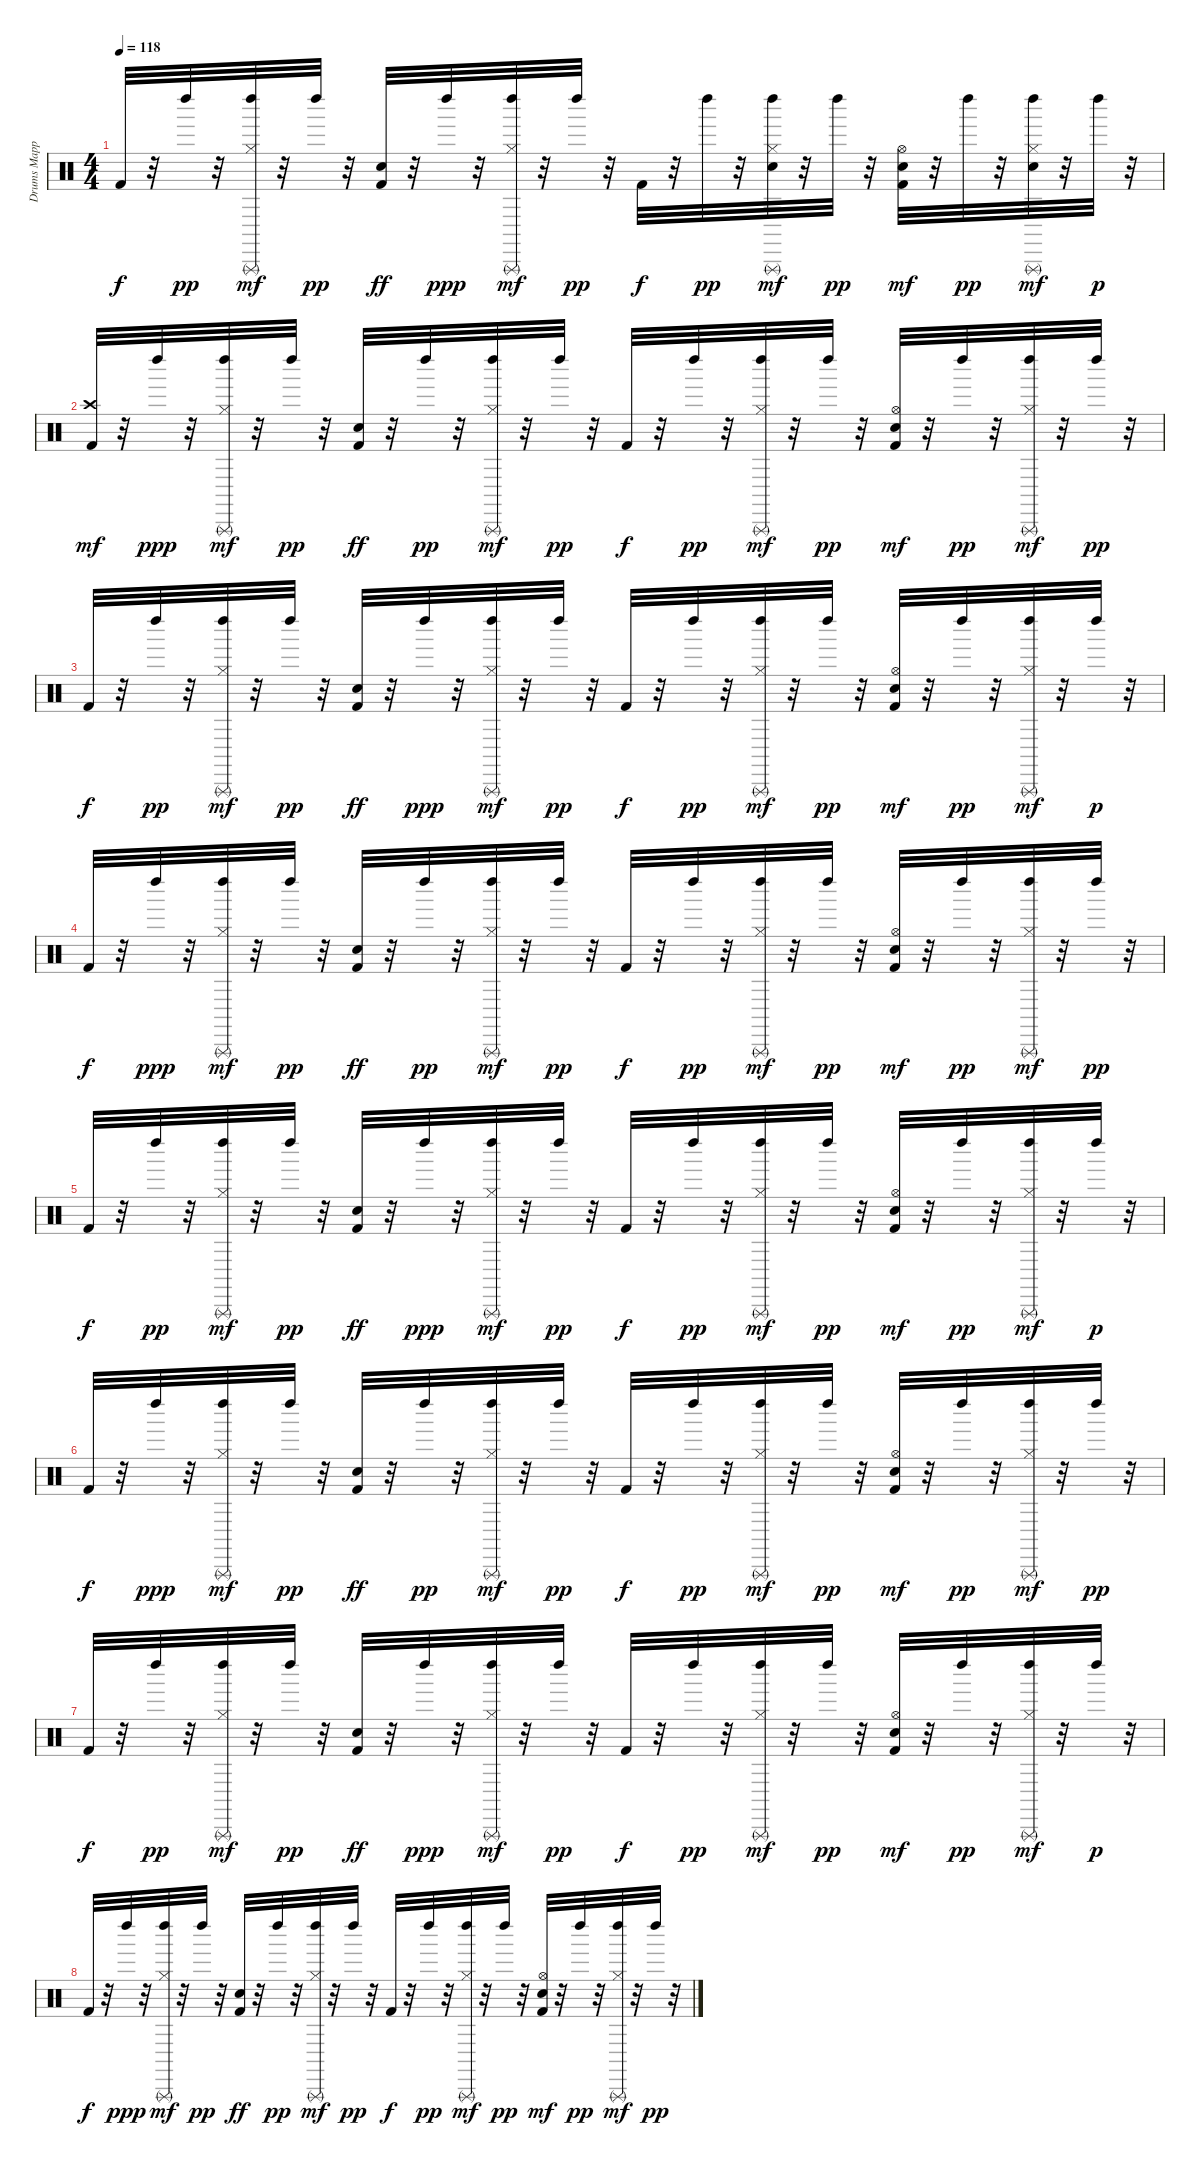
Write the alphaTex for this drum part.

\track ("Drums Mapped*merged" "Drums Mapp") {instrument percussion}
\staff {score}
\articulation defaults
\ts (4 4)
\tempo 118
\clef neutral
\ks c "Kick (hit) 2".32{dy f}
r.32 "Left Maraca (hit)".32{dy pp} r.32 ("Hi-Hat (closed)" "Left Maraca (hit)" "Triangle (rnute)").32{dy mf} r.32 "Left Maraca (hit)".32{dy pp} r.32 ("Kick (hit) 2" "Snare (hit) 2").32{dy ff} r.32 "Left Maraca (hit)".32{dy ppp} r.32 ("Hi-Hat (closed)" "Left Maraca (hit)" "Triangle (rnute)").32{dy mf} r.32 "Left Maraca (hit)".32{dy pp} r.32 "Kick (hit) 2".32{dy f} r.32 "Left Maraca (hit)".32{dy pp} r.32 ("Snare (hit) 2" "Hi-Hat (closed)" "Left Maraca (hit)" "Triangle (rnute)").32{dy mf} r.32 "Left Maraca (hit)".32{dy pp} r.32 ("Kick (hit) 2" "Snare (hit) 2" "Hi-Hat (open)").32{dy mf} r.32 "Left Maraca (hit)".32{dy pp} r.32 ("Snare (hit) 2" "Hi-Hat (closed)" "Left Maraca (hit)" "Triangle (rnute)").32{dy mf} r.32 "Left Maraca (hit)".32{dy p} r.32 |
("Kick (hit) 2" "Crash high (hit)").32{dy mf} r.32 "Left Maraca (hit)".32{dy ppp} r.32 ("Hi-Hat (closed)" "Left Maraca (hit)" "Triangle (rnute)").32{dy mf} r.32 "Left Maraca (hit)".32{dy pp} r.32 ("Kick (hit) 2" "Snare (hit) 2").32{dy ff} r.32 "Left Maraca (hit)".32{dy pp} r.32 ("Hi-Hat (closed)" "Left Maraca (hit)" "Triangle (rnute)").32{dy mf} r.32 "Left Maraca (hit)".32{dy pp} r.32 "Kick (hit) 2".32{dy f} r.32 "Left Maraca (hit)".32{dy pp} r.32 ("Hi-Hat (closed)" "Left Maraca (hit)" "Triangle (rnute)").32{dy mf} r.32 "Left Maraca (hit)".32{dy pp} r.32 ("Kick (hit) 2" "Snare (hit) 2" "Hi-Hat (open)").32{dy mf} r.32 "Left Maraca (hit)".32{dy pp} r.32 ("Hi-Hat (closed)" "Left Maraca (hit)" "Triangle (rnute)").32{dy mf} r.32 "Left Maraca (hit)".32{dy pp} r.32 |
"Kick (hit) 2".32{dy f} r.32 "Left Maraca (hit)".32{dy pp} r.32 ("Hi-Hat (closed)" "Left Maraca (hit)" "Triangle (rnute)").32{dy mf} r.32 "Left Maraca (hit)".32{dy pp} r.32 ("Kick (hit) 2" "Snare (hit) 2").32{dy ff} r.32 "Left Maraca (hit)".32{dy ppp} r.32 ("Hi-Hat (closed)" "Left Maraca (hit)" "Triangle (rnute)").32{dy mf} r.32 "Left Maraca (hit)".32{dy pp} r.32 "Kick (hit) 2".32{dy f} r.32 "Left Maraca (hit)".32{dy pp} r.32 ("Hi-Hat (closed)" "Left Maraca (hit)" "Triangle (rnute)").32{dy mf} r.32 "Left Maraca (hit)".32{dy pp} r.32 ("Kick (hit) 2" "Snare (hit) 2" "Hi-Hat (open)").32{dy mf} r.32 "Left Maraca (hit)".32{dy pp} r.32 ("Hi-Hat (closed)" "Left Maraca (hit)" "Triangle (rnute)").32{dy mf} r.32 "Left Maraca (hit)".32{dy p} r.32 |
"Kick (hit) 2".32{dy f} r.32 "Left Maraca (hit)".32{dy ppp} r.32 ("Hi-Hat (closed)" "Left Maraca (hit)" "Triangle (rnute)").32{dy mf} r.32 "Left Maraca (hit)".32{dy pp} r.32 ("Kick (hit) 2" "Snare (hit) 2").32{dy ff} r.32 "Left Maraca (hit)".32{dy pp} r.32 ("Hi-Hat (closed)" "Left Maraca (hit)" "Triangle (rnute)").32{dy mf} r.32 "Left Maraca (hit)".32{dy pp} r.32 "Kick (hit) 2".32{dy f} r.32 "Left Maraca (hit)".32{dy pp} r.32 ("Hi-Hat (closed)" "Left Maraca (hit)" "Triangle (rnute)").32{dy mf} r.32 "Left Maraca (hit)".32{dy pp} r.32 ("Kick (hit) 2" "Snare (hit) 2" "Hi-Hat (open)").32{dy mf} r.32 "Left Maraca (hit)".32{dy pp} r.32 ("Hi-Hat (closed)" "Left Maraca (hit)" "Triangle (rnute)").32{dy mf} r.32 "Left Maraca (hit)".32{dy pp} r.32 |
"Kick (hit) 2".32{dy f} r.32 "Left Maraca (hit)".32{dy pp} r.32 ("Hi-Hat (closed)" "Left Maraca (hit)" "Triangle (rnute)").32{dy mf} r.32 "Left Maraca (hit)".32{dy pp} r.32 ("Kick (hit) 2" "Snare (hit) 2").32{dy ff} r.32 "Left Maraca (hit)".32{dy ppp} r.32 ("Hi-Hat (closed)" "Left Maraca (hit)" "Triangle (rnute)").32{dy mf} r.32 "Left Maraca (hit)".32{dy pp} r.32 "Kick (hit) 2".32{dy f} r.32 "Left Maraca (hit)".32{dy pp} r.32 ("Hi-Hat (closed)" "Left Maraca (hit)" "Triangle (rnute)").32{dy mf} r.32 "Left Maraca (hit)".32{dy pp} r.32 ("Kick (hit) 2" "Snare (hit) 2" "Hi-Hat (open)").32{dy mf} r.32 "Left Maraca (hit)".32{dy pp} r.32 ("Hi-Hat (closed)" "Left Maraca (hit)" "Triangle (rnute)").32{dy mf} r.32 "Left Maraca (hit)".32{dy p} r.32 |
"Kick (hit) 2".32{dy f} r.32 "Left Maraca (hit)".32{dy ppp} r.32 ("Hi-Hat (closed)" "Left Maraca (hit)" "Triangle (rnute)").32{dy mf} r.32 "Left Maraca (hit)".32{dy pp} r.32 ("Kick (hit) 2" "Snare (hit) 2").32{dy ff} r.32 "Left Maraca (hit)".32{dy pp} r.32 ("Hi-Hat (closed)" "Left Maraca (hit)" "Triangle (rnute)").32{dy mf} r.32 "Left Maraca (hit)".32{dy pp} r.32 "Kick (hit) 2".32{dy f} r.32 "Left Maraca (hit)".32{dy pp} r.32 ("Hi-Hat (closed)" "Left Maraca (hit)" "Triangle (rnute)").32{dy mf} r.32 "Left Maraca (hit)".32{dy pp} r.32 ("Kick (hit) 2" "Snare (hit) 2" "Hi-Hat (open)").32{dy mf} r.32 "Left Maraca (hit)".32{dy pp} r.32 ("Hi-Hat (closed)" "Left Maraca (hit)" "Triangle (rnute)").32{dy mf} r.32 "Left Maraca (hit)".32{dy pp} r.32 |
"Kick (hit) 2".32{dy f} r.32 "Left Maraca (hit)".32{dy pp} r.32 ("Hi-Hat (closed)" "Left Maraca (hit)" "Triangle (rnute)").32{dy mf} r.32 "Left Maraca (hit)".32{dy pp} r.32 ("Kick (hit) 2" "Snare (hit) 2").32{dy ff} r.32 "Left Maraca (hit)".32{dy ppp} r.32 ("Hi-Hat (closed)" "Left Maraca (hit)" "Triangle (rnute)").32{dy mf} r.32 "Left Maraca (hit)".32{dy pp} r.32 "Kick (hit) 2".32{dy f} r.32 "Left Maraca (hit)".32{dy pp} r.32 ("Hi-Hat (closed)" "Left Maraca (hit)" "Triangle (rnute)").32{dy mf} r.32 "Left Maraca (hit)".32{dy pp} r.32 ("Kick (hit) 2" "Snare (hit) 2" "Hi-Hat (open)").32{dy mf} r.32 "Left Maraca (hit)".32{dy pp} r.32 ("Hi-Hat (closed)" "Left Maraca (hit)" "Triangle (rnute)").32{dy mf} r.32 "Left Maraca (hit)".32{dy p} r.32 |
"Kick (hit) 2".32{dy f} r.32 "Left Maraca (hit)".32{dy ppp} r.32 ("Hi-Hat (closed)" "Left Maraca (hit)" "Triangle (rnute)").32{dy mf} r.32 "Left Maraca (hit)".32{dy pp} r.32 ("Kick (hit) 2" "Snare (hit) 2").32{dy ff} r.32 "Left Maraca (hit)".32{dy pp} r.32 ("Hi-Hat (closed)" "Left Maraca (hit)" "Triangle (rnute)").32{dy mf} r.32 "Left Maraca (hit)".32{dy pp} r.32 "Kick (hit) 2".32{dy f} r.32 "Left Maraca (hit)".32{dy pp} r.32 ("Hi-Hat (closed)" "Left Maraca (hit)" "Triangle (rnute)").32{dy mf} r.32 "Left Maraca (hit)".32{dy pp} r.32 ("Kick (hit) 2" "Snare (hit) 2" "Hi-Hat (open)").32{dy mf} r.32 "Left Maraca (hit)".32{dy pp} r.32 ("Hi-Hat (closed)" "Left Maraca (hit)" "Triangle (rnute)").32{dy mf} r.32 "Left Maraca (hit)".32{dy pp} r.32
